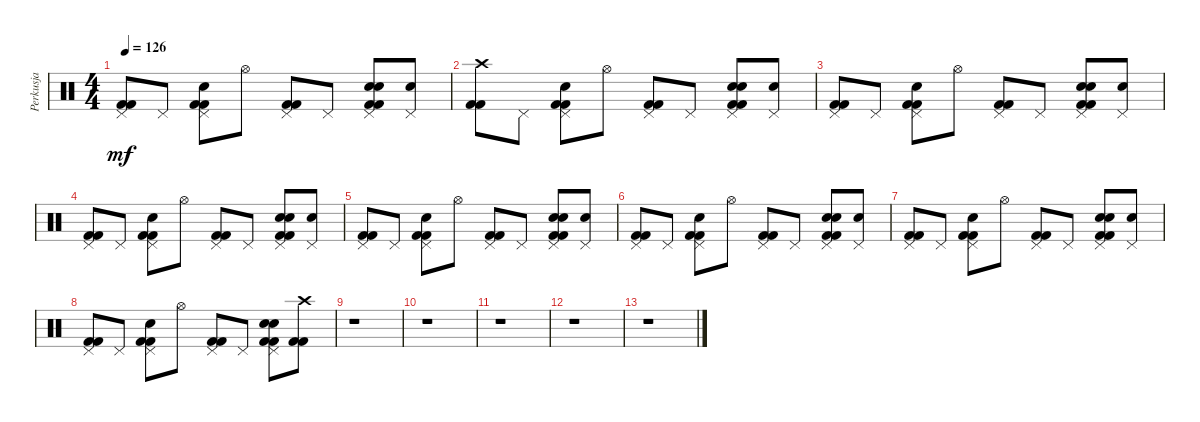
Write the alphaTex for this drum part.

\track ("Perkusja" "Perkusja") {instrument percussion}
\staff {score}
\articulation defaults
\ts (4 4)
\tempo 126
\clef neutral
\ks c
("Pedal Hi-Hat (hit)" "Kick (hit) 2" "Kick (hit) 2").8{dy mf} "Pedal Hi-Hat (hit)".8 ("Pedal Hi-Hat (hit)" "Snare (hit) 2" "Kick (hit) 2" "Kick (hit) 2").8 "Hi-Hat (open)".8 ("Pedal Hi-Hat (hit)" "Kick (hit) 2" "Kick (hit) 2").8 "Pedal Hi-Hat (hit)".8 ("Pedal Hi-Hat (hit)" "Hand Clap (hit)" "Snare (hit) 2" "Kick (hit) 2" "Kick (hit) 2").8 ("Pedal Hi-Hat (hit)" "Hand Clap (hit)").8 |
("Crash high (hit)" "Kick (hit) 2" "Kick (hit) 2").8 "Pedal Hi-Hat (hit)".8 ("Pedal Hi-Hat (hit)" "Snare (hit) 2" "Kick (hit) 2" "Kick (hit) 2").8 "Hi-Hat (open)".8 ("Pedal Hi-Hat (hit)" "Kick (hit) 2" "Kick (hit) 2").8 "Pedal Hi-Hat (hit)".8 ("Pedal Hi-Hat (hit)" "Hand Clap (hit)" "Snare (hit) 2" "Kick (hit) 2" "Kick (hit) 2").8 ("Pedal Hi-Hat (hit)" "Hand Clap (hit)").8 |
("Pedal Hi-Hat (hit)" "Kick (hit) 2" "Kick (hit) 2").8 "Pedal Hi-Hat (hit)".8 ("Pedal Hi-Hat (hit)" "Snare (hit) 2" "Kick (hit) 2" "Kick (hit) 2").8 "Hi-Hat (open)".8 ("Pedal Hi-Hat (hit)" "Kick (hit) 2" "Kick (hit) 2").8 "Pedal Hi-Hat (hit)".8 ("Pedal Hi-Hat (hit)" "Hand Clap (hit)" "Snare (hit) 2" "Kick (hit) 2" "Kick (hit) 2").8 ("Pedal Hi-Hat (hit)" "Hand Clap (hit)").8 |
("Pedal Hi-Hat (hit)" "Kick (hit) 2" "Kick (hit) 2").8 "Pedal Hi-Hat (hit)".8 ("Pedal Hi-Hat (hit)" "Snare (hit) 2" "Kick (hit) 2" "Kick (hit) 2").8 "Hi-Hat (open)".8 ("Pedal Hi-Hat (hit)" "Kick (hit) 2" "Kick (hit) 2").8 "Pedal Hi-Hat (hit)".8 ("Pedal Hi-Hat (hit)" "Hand Clap (hit)" "Snare (hit) 2" "Kick (hit) 2" "Kick (hit) 2").8 ("Pedal Hi-Hat (hit)" "Hand Clap (hit)").8 |
("Pedal Hi-Hat (hit)" "Kick (hit) 2" "Kick (hit) 2").8 "Pedal Hi-Hat (hit)".8 ("Pedal Hi-Hat (hit)" "Snare (hit) 2" "Kick (hit) 2" "Kick (hit) 2").8 "Hi-Hat (open)".8 ("Pedal Hi-Hat (hit)" "Kick (hit) 2" "Kick (hit) 2").8 "Pedal Hi-Hat (hit)".8 ("Pedal Hi-Hat (hit)" "Hand Clap (hit)" "Snare (hit) 2" "Kick (hit) 2" "Kick (hit) 2").8 ("Pedal Hi-Hat (hit)" "Hand Clap (hit)").8 |
("Pedal Hi-Hat (hit)" "Kick (hit) 2" "Kick (hit) 2").8 "Pedal Hi-Hat (hit)".8 ("Pedal Hi-Hat (hit)" "Snare (hit) 2" "Kick (hit) 2" "Kick (hit) 2").8 "Hi-Hat (open)".8 ("Pedal Hi-Hat (hit)" "Kick (hit) 2" "Kick (hit) 2").8 "Pedal Hi-Hat (hit)".8 ("Pedal Hi-Hat (hit)" "Hand Clap (hit)" "Snare (hit) 2" "Kick (hit) 2" "Kick (hit) 2").8 ("Pedal Hi-Hat (hit)" "Hand Clap (hit)").8 |
("Pedal Hi-Hat (hit)" "Kick (hit) 2" "Kick (hit) 2").8 "Pedal Hi-Hat (hit)".8 ("Pedal Hi-Hat (hit)" "Snare (hit) 2" "Kick (hit) 2" "Kick (hit) 2").8 "Hi-Hat (open)".8 ("Pedal Hi-Hat (hit)" "Kick (hit) 2" "Kick (hit) 2").8 "Pedal Hi-Hat (hit)".8 ("Pedal Hi-Hat (hit)" "Hand Clap (hit)" "Snare (hit) 2" "Kick (hit) 2" "Kick (hit) 2").8 ("Pedal Hi-Hat (hit)" "Hand Clap (hit)").8 |
("Pedal Hi-Hat (hit)" "Kick (hit) 2" "Kick (hit) 2").8 "Pedal Hi-Hat (hit)".8 ("Pedal Hi-Hat (hit)" "Snare (hit) 2" "Kick (hit) 2" "Kick (hit) 2").8 "Hi-Hat (open)".8 ("Pedal Hi-Hat (hit)" "Kick (hit) 2" "Kick (hit) 2").8 "Pedal Hi-Hat (hit)".8 ("Pedal Hi-Hat (hit)" "Hand Clap (hit)" "Snare (hit) 2" "Kick (hit) 2" "Kick (hit) 2").8 ("Crash high (hit)" "Kick (hit) 2" "Kick (hit) 2").8 |
r.1 |
r.1 |
r.1 |
r.1 |
r.1
